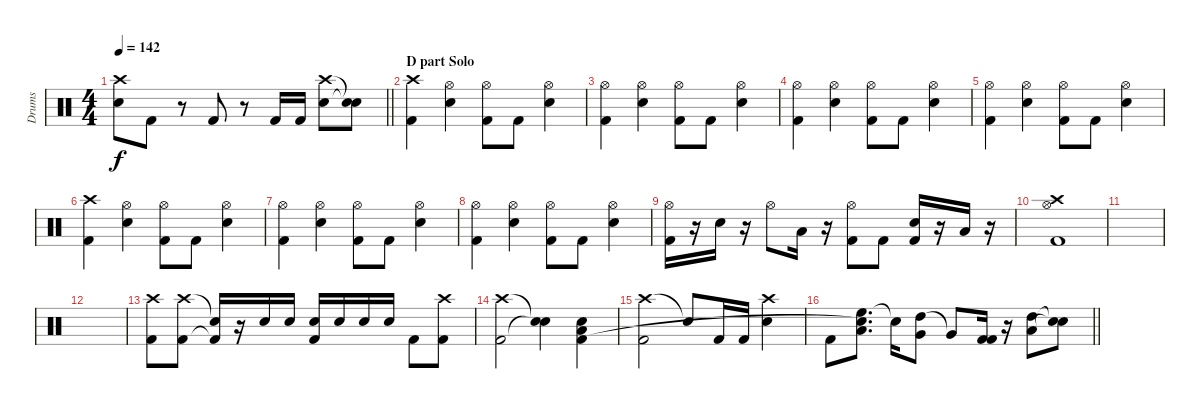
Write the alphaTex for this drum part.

\track ("Drums" "Drums") {instrument percussion}
\staff {score}
\articulation defaults
\ts (4 4)
\tempo 142
\clef neutral
\barLineRight lightlight
\ks c
("Crash high (hit)" "Snare (hit) 2").8{dy f} "Kick (hit) 2".8 r.8 "Kick (hit) 2".8 r.8 "Kick (hit) 2".16 "Kick (hit) 2".16 ("Crash high (hit)" "Snare (hit) 2").8 ("Snare (hit)"{t} "Snare (hit)"{t}).8 |
\section ("" "D part Solo")
("Crash high (hit)" "Kick (hit) 2").4 ("Hi-Hat (open)" "Snare (hit) 2").4 ("Hi-Hat (open)" "Kick (hit) 2").8 "Kick (hit) 2".8 ("Hi-Hat (open)" "Snare (hit) 2").4 |
("Hi-Hat (open)" "Kick (hit) 2").4 ("Hi-Hat (open)" "Snare (hit) 2").4 ("Hi-Hat (open)" "Kick (hit) 2").8 "Kick (hit) 2".8 ("Hi-Hat (open)" "Snare (hit) 2").4 |
("Hi-Hat (open)" "Kick (hit) 2").4 ("Hi-Hat (open)" "Snare (hit) 2").4 ("Hi-Hat (open)" "Kick (hit) 2").8 "Kick (hit) 2".8 ("Hi-Hat (open)" "Snare (hit) 2").4 |
("Hi-Hat (open)" "Kick (hit) 2").4 ("Hi-Hat (open)" "Snare (hit) 2").4 ("Hi-Hat (open)" "Kick (hit) 2").8 "Kick (hit) 2".8 ("Hi-Hat (open)" "Snare (hit) 2").4 |
("Crash high (hit)" "Kick (hit) 2").4 ("Hi-Hat (open)" "Snare (hit) 2").4 ("Hi-Hat (open)" "Kick (hit) 2").8 "Kick (hit) 2".8 ("Hi-Hat (open)" "Snare (hit) 2").4 |
("Hi-Hat (open)" "Kick (hit) 2").4 ("Hi-Hat (open)" "Snare (hit) 2").4 ("Hi-Hat (open)" "Kick (hit) 2").8 "Kick (hit) 2".8 ("Hi-Hat (open)" "Snare (hit) 2").4 |
("Hi-Hat (open)" "Kick (hit) 2").4 ("Hi-Hat (open)" "Snare (hit) 2").4 ("Hi-Hat (open)" "Kick (hit) 2").8 "Kick (hit) 2".8 ("Hi-Hat (open)" "Snare (hit) 2").4 |
("Hi-Hat (open)" "Kick (hit) 2").16 r.16 "Snare (hit) 2".16 r.16 "Hi-Hat (open)".8 "Low Tom (hit)".16 r.16 ("Hi-Hat (open)" "Kick (hit) 2").8 "Kick (hit) 2".8 ("Snare (hit) 2" "Kick (hit) 2").16 r.16 "Low Tom (hit)".16 r.16{txt ""} |
("Crash high (hit)" "Hi-Hat (open)" "Kick (hit) 2").1 |
|
|
("Crash high (hit)" "Kick (hit) 2").8 ("Crash high (hit)" "Kick (hit) 2").8 ("Snare (hit)"{t} "Kick (hit) 2"{t}).16 r.16 "Snare (hit) 2".16 "Snare (hit) 2".16 ("Snare (hit) 2" "Kick (hit) 2").16 "Snare (hit) 2".16 "Snare (hit) 2".16 "Snare (hit) 2".16 "Kick (hit) 2".8 ("Crash high (hit)" "Kick (hit) 2").8 |
("Crash high (hit)" "Kick (hit) 2").2 ("Snare (hit)"{t} "Snare (hit)"{t}).4 ("Low Tom (hit)" "Snare (hit) 2" "Kick (hit) 2").4 |
("Crash high (hit)" "Kick (hit) 2").2 "Snare (hit)"{t}.8 "Kick (hit) 2".16 "Kick (hit) 2".16 ("Crash high (hit)" "Snare (hit) 2").4 |
\barLineRight lightlight "Kick (hit) 2".8
("High Floor Tom (hit)" "Low Tom (hit)" "Snare (hit)"{t}).8{d} "Snare (hit)"{t}.16 ("High Tom (hit)" "Very Low Tom (hit)").8 "Very Low Tom (hit)"{t}.8 ("Kick (hit) 2" "Kick (hit) 2").16 r.16 ("High Tom (hit)" "Low Tom (hit)").8 ("Snare (hit)"{t} "Snare (hit)"{t}).8
